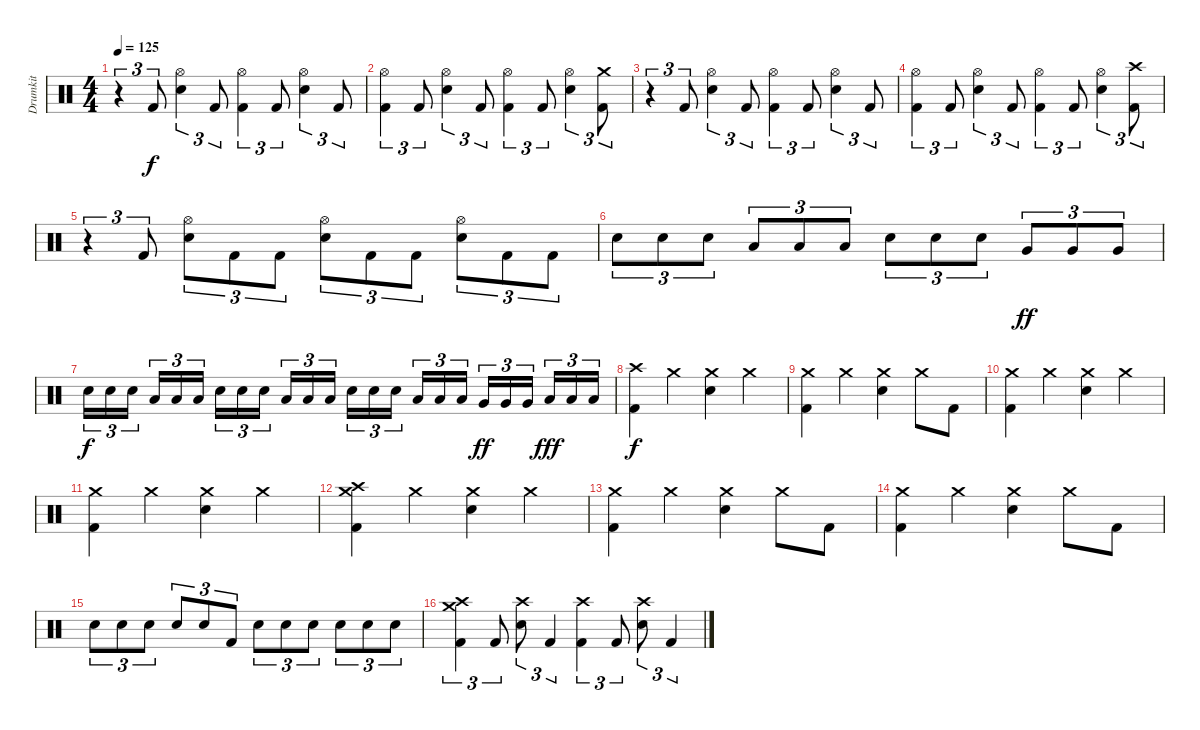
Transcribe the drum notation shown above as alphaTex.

\track ("Drumkit" "Drumkit") {instrument percussion}
\staff {score}
\articulation defaults
\ts (4 4)
\tempo 125
\clef neutral
\ks c
r.4{tu (3 2) dy f} "Kick (hit) 2".8{tu (3 2)} ("Hi-Hat (open)" "Electric Snare (hit)").4{tu (3 2)} "Kick (hit) 2".8{tu (3 2)} ("Hi-Hat (open)" "Kick (hit) 2").4{tu (3 2)} "Kick (hit) 2".8{tu (3 2)} ("Hi-Hat (open)" "Electric Snare (hit)").4{tu (3 2)} "Kick (hit) 2".8{tu (3 2)} |
("Hi-Hat (open)" "Kick (hit) 2").4{tu (3 2)} "Kick (hit) 2".8{tu (3 2)} ("Hi-Hat (open)" "Electric Snare (hit)").4{tu (3 2)} "Kick (hit) 2".8{tu (3 2)} ("Hi-Hat (open)" "Kick (hit) 2").4{tu (3 2)} "Kick (hit) 2".8{tu (3 2)} ("Hi-Hat (open)" "Electric Snare (hit)").4{tu (3 2)} ("Crash medium (hit)" "Kick (hit) 2").8{tu (3 2)} |
r.4{tu (3 2)} "Kick (hit) 2".8{tu (3 2)} ("Hi-Hat (open)" "Electric Snare (hit)").4{tu (3 2)} "Kick (hit) 2".8{tu (3 2)} ("Hi-Hat (open)" "Kick (hit) 2").4{tu (3 2)} "Kick (hit) 2".8{tu (3 2)} ("Hi-Hat (open)" "Electric Snare (hit)").4{tu (3 2)} "Kick (hit) 2".8{tu (3 2)} |
("Hi-Hat (open)" "Kick (hit) 2").4{tu (3 2)} "Kick (hit) 2".8{tu (3 2)} ("Hi-Hat (open)" "Electric Snare (hit)").4{tu (3 2)} "Kick (hit) 2".8{tu (3 2)} ("Hi-Hat (open)" "Kick (hit) 2").4{tu (3 2)} "Kick (hit) 2".8{tu (3 2)} ("Hi-Hat (open)" "Electric Snare (hit)").4{tu (3 2)} ("Crash high (hit)" "Kick (hit) 2").8{tu (3 2)} |
r.4{tu (3 2)} "Kick (hit) 2".8{tu (3 2)} ("Hi-Hat (open)" "Electric Snare (hit)").8{tu (3 2)} "Kick (hit) 2".8{tu (3 2)} "Kick (hit) 2".8{tu (3 2)} ("Hi-Hat (open)" "Electric Snare (hit)").8{tu (3 2)} "Kick (hit) 2".8{tu (3 2)} "Kick (hit) 2".8{tu (3 2)} ("Hi-Hat (open)" "Electric Snare (hit)").8{tu (3 2)} "Kick (hit) 2".8{tu (3 2)} "Kick (hit) 2".8{tu (3 2)} |
"Electric Snare (hit)".8{tu (3 2)} "Electric Snare (hit)".8{tu (3 2)} "Electric Snare (hit)".8{tu (3 2)} "Low Tom (hit)".8{tu (3 2)} "Low Tom (hit)".8{tu (3 2)} "Low Tom (hit)".8{tu (3 2)} "Electric Snare (hit)".8{tu (3 2)} "Electric Snare (hit)".8{tu (3 2)} "Electric Snare (hit)".8{tu (3 2)} "Very Low Tom (hit)".8{tu (3 2) dy ff} "Very Low Tom (hit)".8{tu (3 2)} "Very Low Tom (hit)".8{tu (3 2)} |
"Electric Snare (hit)".16{tu (3 2) dy f} "Electric Snare (hit)".16{tu (3 2)} "Electric Snare (hit)".16{tu (3 2) beam splitsecondary} "Low Tom (hit)".16{tu (3 2)} "Low Tom (hit)".16{tu (3 2)} "Low Tom (hit)".16{tu (3 2)} "Electric Snare (hit)".16{tu (3 2)} "Electric Snare (hit)".16{tu (3 2)} "Electric Snare (hit)".16{tu (3 2) beam splitsecondary} "Low Tom (hit)".16{tu (3 2)} "Low Tom (hit)".16{tu (3 2)} "Low Tom (hit)".16{tu (3 2)} "Electric Snare (hit)".16{tu (3 2)} "Electric Snare (hit)".16{tu (3 2)} "Electric Snare (hit)".16{tu (3 2) beam splitsecondary} "Low Tom (hit)".16{tu (3 2)} "Low Tom (hit)".16{tu (3 2)} "Low Tom (hit)".16{tu (3 2)} "Very Low Tom (hit)".16{tu (3 2) dy ff} "Very Low Tom (hit)".16{tu (3 2)} "Very Low Tom (hit)".16{tu (3 2) beam splitsecondary} "Low Floor Tom (hit)".16{tu (3 2) dy fff} "Low Floor Tom (hit)".16{tu (3 2)} "Low Floor Tom (hit)".16{tu (3 2)} |
("Crash high (hit)" "Kick (hit) 2").4{dy f} "Crash medium (hit)".4 ("Crash medium (hit)" "Electric Snare (hit)").4 "Crash medium (hit)".4 |
("Crash medium (hit)" "Kick (hit) 2").4 "Crash medium (hit)".4 ("Crash medium (hit)" "Electric Snare (hit)").4 "Crash medium (hit)".8 "Kick (hit) 2".8 |
("Crash medium (hit)" "Kick (hit) 2").4 "Crash medium (hit)".4 ("Crash medium (hit)" "Electric Snare (hit)").4 "Crash medium (hit)".4 |
("Crash medium (hit)" "Kick (hit) 2").4 "Crash medium (hit)".4 ("Crash medium (hit)" "Electric Snare (hit)").4 "Crash medium (hit)".4 |
("Crash high (hit)" "Crash medium (hit)" "Kick (hit) 2").4 "Crash medium (hit)".4 ("Crash medium (hit)" "Electric Snare (hit)").4 "Crash medium (hit)".4 |
("Crash medium (hit)" "Kick (hit) 2").4 "Crash medium (hit)".4 ("Crash medium (hit)" "Electric Snare (hit)").4 "Crash medium (hit)".8 "Kick (hit) 2".8 |
("Crash medium (hit)" "Kick (hit) 2").4 "Crash medium (hit)".4 ("Crash medium (hit)" "Electric Snare (hit)").4 "Crash medium (hit)".8 "Kick (hit) 2".8 |
"Electric Snare (hit)".8{tu (3 2)} "Electric Snare (hit)".8{tu (3 2)} "Electric Snare (hit)".8{tu (3 2)} "Electric Snare (hit)".8{tu (3 2)} "Electric Snare (hit)".8{tu (3 2)} "Kick (hit) 2".8{tu (3 2)} "Electric Snare (hit)".8{tu (3 2)} "Electric Snare (hit)".8{tu (3 2)} "Electric Snare (hit)".8{tu (3 2)} "Electric Snare (hit)".8{tu (3 2)} "Electric Snare (hit)".8{tu (3 2)} "Electric Snare (hit)".8{tu (3 2)} |
("Crash high (hit)" "Crash medium (hit)" "Kick (hit) 2").4{tu (3 2)} "Kick (hit) 2".8{tu (3 2)} ("Crash high (hit)" "Electric Snare (hit)").8{tu (3 2)} "Kick (hit) 2".4{tu (3 2)} ("Crash high (hit)" "Kick (hit) 2").4{tu (3 2)} "Kick (hit) 2".8{tu (3 2)} ("Crash high (hit)" "Electric Snare (hit)").8{tu (3 2)} "Kick (hit) 2".4{tu (3 2)}
